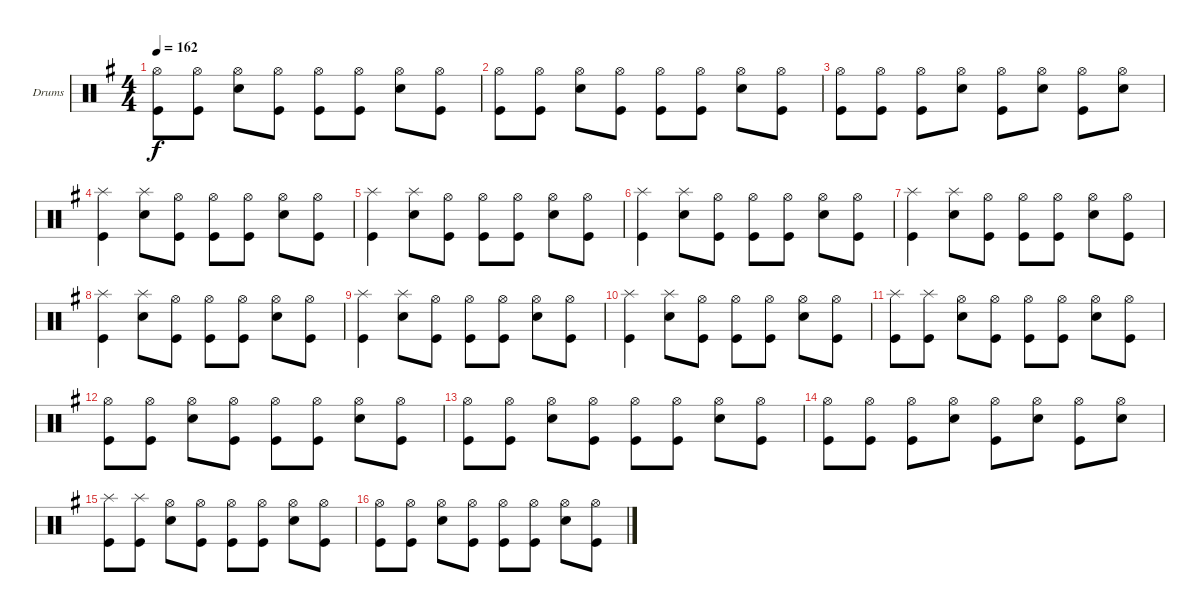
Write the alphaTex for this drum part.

\defaultSystemsLayout 4
\bracketExtendMode groupsimilarinstruments
\firstSystemTrackNameOrientation horizontal
\otherSystemsTrackNameOrientation horizontal
\track ("Drumkit" "Drums") {instrument percussion}
\staff {score}
\articulation defaults
\ts (4 4)
\tempo 162
\clef neutral
\ks g
("Hi-Hat (open)" "Kick (hit)").8{dy f} ("Hi-Hat (open)" "Kick (hit)").8 ("Hi-Hat (open)" "Snare (hit) 2").8 ("Hi-Hat (open)" "Kick (hit)").8 ("Hi-Hat (open)" "Kick (hit)").8 ("Hi-Hat (open)" "Kick (hit)").8 ("Hi-Hat (open)" "Snare (hit) 2").8 ("Hi-Hat (open)" "Kick (hit)").8 |
("Hi-Hat (open)" "Kick (hit)").8 ("Hi-Hat (open)" "Kick (hit)").8 ("Hi-Hat (open)" "Snare (hit) 2").8 ("Hi-Hat (open)" "Kick (hit)").8 ("Hi-Hat (open)" "Kick (hit)").8 ("Hi-Hat (open)" "Kick (hit)").8 ("Hi-Hat (open)" "Snare (hit) 2").8 ("Hi-Hat (open)" "Kick (hit)").8 |
("Hi-Hat (open)" "Kick (hit)").8 ("Hi-Hat (open)" "Kick (hit)").8 ("Hi-Hat (open)" "Kick (hit)").8 ("Hi-Hat (open)" "Snare (hit) 2").8 ("Hi-Hat (open)" "Kick (hit)").8 ("Hi-Hat (open)" "Snare (hit) 2").8 ("Hi-Hat (open)" "Kick (hit)").8 ("Hi-Hat (open)" "Snare (hit) 2").8 |
("Splash (hit)" "Kick (hit)").4 ("Splash (hit)" "Snare (hit) 2").8 ("Hi-Hat (open)" "Kick (hit)").8 ("Hi-Hat (open)" "Kick (hit)").8 ("Hi-Hat (open)" "Kick (hit)").8 ("Hi-Hat (open)" "Snare (hit) 2").8 ("Hi-Hat (open)" "Kick (hit)").8 |
("Splash (hit)" "Kick (hit)").4 ("Splash (hit)" "Snare (hit) 2").8 ("Hi-Hat (open)" "Kick (hit)").8 ("Hi-Hat (open)" "Kick (hit)").8 ("Hi-Hat (open)" "Kick (hit)").8 ("Hi-Hat (open)" "Snare (hit) 2").8 ("Hi-Hat (open)" "Kick (hit)").8 |
("Splash (hit)" "Kick (hit)").4 ("Splash (hit)" "Snare (hit) 2").8 ("Hi-Hat (open)" "Kick (hit)").8 ("Hi-Hat (open)" "Kick (hit)").8 ("Hi-Hat (open)" "Kick (hit)").8 ("Hi-Hat (open)" "Snare (hit) 2").8 ("Hi-Hat (open)" "Kick (hit)").8 |
("Splash (hit)" "Kick (hit)").4 ("Splash (hit)" "Snare (hit) 2").8 ("Hi-Hat (open)" "Kick (hit)").8 ("Hi-Hat (open)" "Kick (hit)").8 ("Hi-Hat (open)" "Kick (hit)").8 ("Hi-Hat (open)" "Snare (hit) 2").8 ("Hi-Hat (open)" "Kick (hit)").8 |
("Splash (hit)" "Kick (hit)").4 ("Splash (hit)" "Snare (hit) 2").8 ("Hi-Hat (open)" "Kick (hit)").8 ("Hi-Hat (open)" "Kick (hit)").8 ("Hi-Hat (open)" "Kick (hit)").8 ("Hi-Hat (open)" "Snare (hit) 2").8 ("Hi-Hat (open)" "Kick (hit)").8 |
("Splash (hit)" "Kick (hit)").4 ("Splash (hit)" "Snare (hit) 2").8 ("Hi-Hat (open)" "Kick (hit)").8 ("Hi-Hat (open)" "Kick (hit)").8 ("Hi-Hat (open)" "Kick (hit)").8 ("Hi-Hat (open)" "Snare (hit) 2").8 ("Hi-Hat (open)" "Kick (hit)").8 |
("Splash (hit)" "Kick (hit)").4 ("Splash (hit)" "Snare (hit) 2").8 ("Hi-Hat (open)" "Kick (hit)").8 ("Hi-Hat (open)" "Kick (hit)").8 ("Hi-Hat (open)" "Kick (hit)").8 ("Hi-Hat (open)" "Snare (hit) 2").8 ("Hi-Hat (open)" "Kick (hit)").8 |
("Splash (hit)" "Kick (hit)").8 ("Splash (hit)" "Kick (hit)").8 ("Hi-Hat (open)" "Snare (hit) 2").8 ("Hi-Hat (open)" "Kick (hit)").8 ("Hi-Hat (open)" "Kick (hit)").8 ("Hi-Hat (open)" "Kick (hit)").8 ("Hi-Hat (open)" "Snare (hit) 2").8 ("Hi-Hat (open)" "Kick (hit)").8 |
("Hi-Hat (open)" "Kick (hit)").8 ("Hi-Hat (open)" "Kick (hit)").8 ("Hi-Hat (open)" "Snare (hit) 2").8 ("Hi-Hat (open)" "Kick (hit)").8 ("Hi-Hat (open)" "Kick (hit)").8 ("Hi-Hat (open)" "Kick (hit)").8 ("Hi-Hat (open)" "Snare (hit) 2").8 ("Hi-Hat (open)" "Kick (hit)").8 |
("Hi-Hat (open)" "Kick (hit)").8 ("Hi-Hat (open)" "Kick (hit)").8 ("Hi-Hat (open)" "Snare (hit) 2").8 ("Hi-Hat (open)" "Kick (hit)").8 ("Hi-Hat (open)" "Kick (hit)").8 ("Hi-Hat (open)" "Kick (hit)").8 ("Hi-Hat (open)" "Snare (hit) 2").8 ("Hi-Hat (open)" "Kick (hit)").8 |
("Hi-Hat (open)" "Kick (hit)").8 ("Hi-Hat (open)" "Kick (hit)").8 ("Hi-Hat (open)" "Kick (hit)").8 ("Hi-Hat (open)" "Snare (hit) 2").8 ("Hi-Hat (open)" "Kick (hit)").8 ("Hi-Hat (open)" "Snare (hit) 2").8 ("Hi-Hat (open)" "Kick (hit)").8 ("Hi-Hat (open)" "Snare (hit) 2").8 |
("Splash (hit)" "Kick (hit)").8 ("Splash (hit)" "Kick (hit)").8 ("Hi-Hat (open)" "Snare (hit) 2").8 ("Hi-Hat (open)" "Kick (hit)").8 ("Hi-Hat (open)" "Kick (hit)").8 ("Hi-Hat (open)" "Kick (hit)").8 ("Hi-Hat (open)" "Snare (hit) 2").8 ("Hi-Hat (open)" "Kick (hit)").8 |
("Hi-Hat (open)" "Kick (hit)").8 ("Hi-Hat (open)" "Kick (hit)").8 ("Hi-Hat (open)" "Snare (hit) 2").8 ("Hi-Hat (open)" "Kick (hit)").8 ("Hi-Hat (open)" "Kick (hit)").8 ("Hi-Hat (open)" "Kick (hit)").8 ("Hi-Hat (open)" "Snare (hit) 2").8 ("Hi-Hat (open)" "Kick (hit)").8
